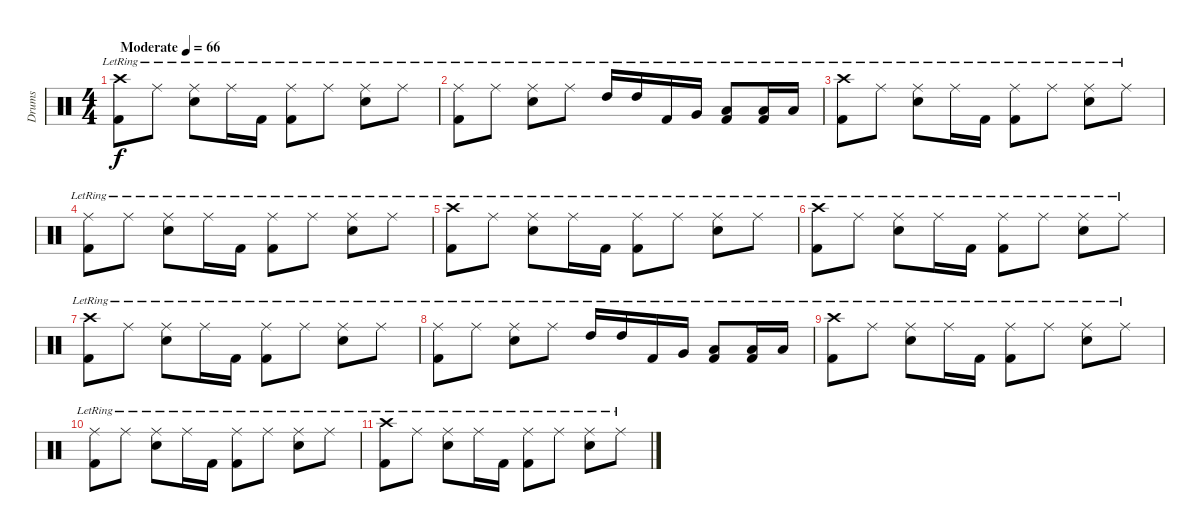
\track ("Drums" "Drums") {instrument percussion}
\staff {score}
\articulation defaults
\ts (4 4)
\tempo (66 "Moderate")
\clef neutral
\ks c
("Crash high (hit)"{lr} "Kick (hit) 2"{lr}).8{dy f} "Ride (middle)"{lr}.8 ("Snare (hit) 2"{lr} "Ride (middle)"{lr}).8 "Ride (middle)"{lr}.16 "Kick (hit) 2"{lr}.16 ("Kick (hit) 2"{lr} "Ride (middle)"{lr}).8 "Ride (middle)"{lr}.8 ("Snare (hit) 2"{lr} "Ride (middle)"{lr}).8 "Ride (middle)"{lr}.8 |
("Kick (hit) 2"{lr} "Ride (middle)"{lr}).8 "Ride (middle)"{lr}.8 ("Snare (hit) 2"{lr} "Ride (middle)"{lr}).8 "Ride (middle)"{lr}.8 "High Tom (hit)"{lr}.16 "High Tom (hit)"{lr}.16 "Kick (hit) 2"{lr}.16 "Very Low Tom (hit)"{lr}.16 ("Kick (hit) 2"{lr} "Low Floor Tom (hit)"{lr}).8 ("Low Floor Tom (hit)"{lr} "Kick (hit) 2"{lr}).16 "Low Floor Tom (hit)"{lr}.16 |
("Crash high (hit)"{lr} "Kick (hit) 2"{lr}).8 "Ride (middle)"{lr}.8 ("Snare (hit) 2"{lr} "Ride (middle)"{lr}).8 "Ride (middle)"{lr}.16 "Kick (hit) 2"{lr}.16 ("Kick (hit) 2"{lr} "Ride (middle)"{lr}).8 "Ride (middle)"{lr}.8 ("Snare (hit) 2"{lr} "Ride (middle)"{lr}).8 "Ride (middle)"{lr}.8 |
("Ride (middle)"{lr} "Kick (hit) 2"{lr}).8 "Ride (middle)"{lr}.8 ("Snare (hit) 2"{lr} "Ride (middle)"{lr}).8 "Ride (middle)"{lr}.16 "Kick (hit) 2"{lr}.16 ("Kick (hit) 2"{lr} "Ride (middle)"{lr}).8 "Ride (middle)"{lr}.8 ("Snare (hit) 2"{lr} "Ride (middle)"{lr}).8 "Ride (middle)"{lr}.8 |
("Crash high (hit)"{lr} "Kick (hit) 2"{lr}).8 "Ride (middle)"{lr}.8 ("Snare (hit) 2"{lr} "Ride (middle)"{lr}).8 "Ride (middle)"{lr}.16 "Kick (hit) 2"{lr}.16 ("Kick (hit) 2"{lr} "Ride (middle)"{lr}).8 "Ride (middle)"{lr}.8 ("Snare (hit) 2"{lr} "Ride (middle)"{lr}).8 "Ride (middle)"{lr}.8 |
("Crash high (hit)"{lr} "Kick (hit) 2"{lr}).8 "Ride (middle)"{lr}.8 ("Snare (hit) 2"{lr} "Ride (middle)"{lr}).8 "Ride (middle)"{lr}.16 "Kick (hit) 2"{lr}.16 ("Kick (hit) 2"{lr} "Ride (middle)"{lr}).8 "Ride (middle)"{lr}.8 ("Snare (hit) 2"{lr} "Ride (middle)"{lr}).8 "Ride (middle)"{lr}.8 |
("Crash high (hit)"{lr} "Kick (hit) 2"{lr}).8 "Ride (middle)"{lr}.8 ("Snare (hit) 2"{lr} "Ride (middle)"{lr}).8 "Ride (middle)"{lr}.16 "Kick (hit) 2"{lr}.16 ("Kick (hit) 2"{lr} "Ride (middle)"{lr}).8 "Ride (middle)"{lr}.8 ("Snare (hit) 2"{lr} "Ride (middle)"{lr}).8 "Ride (middle)"{lr}.8 |
("Kick (hit) 2"{lr} "Ride (middle)"{lr}).8 "Ride (middle)"{lr}.8 ("Snare (hit) 2"{lr} "Ride (middle)"{lr}).8 "Ride (middle)"{lr}.8 "High Tom (hit)"{lr}.16 "High Tom (hit)"{lr}.16 "Kick (hit) 2"{lr}.16 "Very Low Tom (hit)"{lr}.16 ("Kick (hit) 2"{lr} "Low Floor Tom (hit)"{lr}).8 ("Low Floor Tom (hit)"{lr} "Kick (hit) 2"{lr}).16 "Low Floor Tom (hit)"{lr}.16 |
("Crash high (hit)"{lr} "Kick (hit) 2"{lr}).8 "Ride (middle)"{lr}.8 ("Snare (hit) 2"{lr} "Ride (middle)"{lr}).8 "Ride (middle)"{lr}.16 "Kick (hit) 2"{lr}.16 ("Kick (hit) 2"{lr} "Ride (middle)"{lr}).8 "Ride (middle)"{lr}.8 ("Snare (hit) 2"{lr} "Ride (middle)"{lr}).8 "Ride (middle)"{lr}.8 |
("Ride (middle)"{lr} "Kick (hit) 2"{lr}).8 "Ride (middle)"{lr}.8 ("Snare (hit) 2"{lr} "Ride (middle)"{lr}).8 "Ride (middle)"{lr}.16 "Kick (hit) 2"{lr}.16 ("Kick (hit) 2"{lr} "Ride (middle)"{lr}).8 "Ride (middle)"{lr}.8 ("Snare (hit) 2"{lr} "Ride (middle)"{lr}).8 "Ride (middle)"{lr}.8 |
("Crash high (hit)"{lr} "Kick (hit) 2"{lr}).8 "Ride (middle)"{lr}.8 ("Snare (hit) 2"{lr} "Ride (middle)"{lr}).8 "Ride (middle)"{lr}.16 "Kick (hit) 2"{lr}.16 ("Kick (hit) 2"{lr} "Ride (middle)"{lr}).8 "Ride (middle)"{lr}.8 ("Snare (hit) 2"{lr} "Ride (middle)"{lr}).8 "Ride (middle)"{lr}.8
